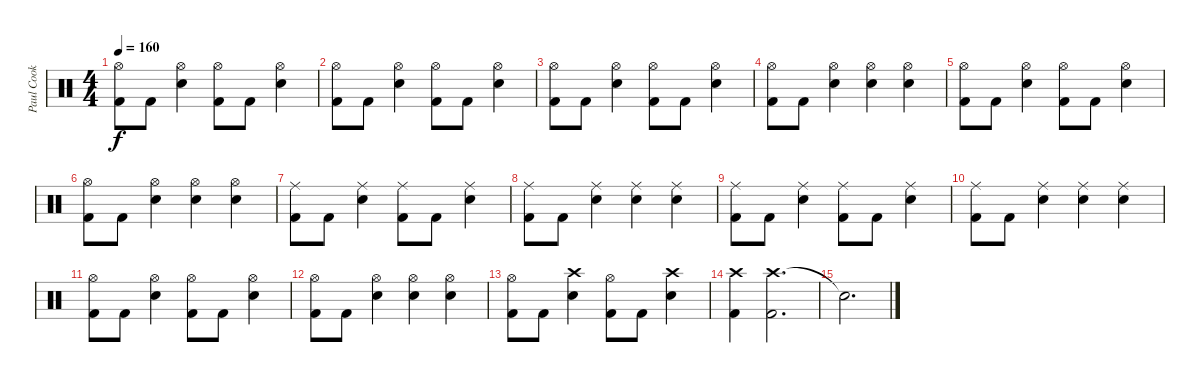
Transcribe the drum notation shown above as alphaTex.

\track ("Paul Cook" "Paul Cook") {instrument percussion}
\staff {score}
\articulation defaults
\ts (4 4)
\tempo 160
\clef neutral
\ks c
("Hi-Hat (open)" "Kick (hit) 2").8{dy f} "Kick (hit) 2".8 ("Hi-Hat (open)" "Electric Snare (hit)").4 ("Hi-Hat (open)" "Kick (hit) 2").8 "Kick (hit) 2".8 ("Hi-Hat (open)" "Electric Snare (hit)").4 |
("Hi-Hat (open)" "Kick (hit) 2").8 "Kick (hit) 2".8 ("Hi-Hat (open)" "Electric Snare (hit)").4 ("Hi-Hat (open)" "Kick (hit) 2").8 "Kick (hit) 2".8 ("Hi-Hat (open)" "Electric Snare (hit)").4 |
("Hi-Hat (open)" "Kick (hit) 2").8 "Kick (hit) 2".8 ("Hi-Hat (open)" "Electric Snare (hit)").4 ("Hi-Hat (open)" "Kick (hit) 2").8 "Kick (hit) 2".8 ("Hi-Hat (open)" "Electric Snare (hit)").4 |
("Hi-Hat (open)" "Kick (hit) 2").8 "Kick (hit) 2".8 ("Hi-Hat (open)" "Electric Snare (hit)").4 ("Hi-Hat (open)" "Electric Snare (hit)").4 ("Hi-Hat (open)" "Electric Snare (hit)").4 |
("Hi-Hat (open)" "Kick (hit) 2").8 "Kick (hit) 2".8 ("Hi-Hat (open)" "Electric Snare (hit)").4 ("Hi-Hat (open)" "Kick (hit) 2").8 "Kick (hit) 2".8 ("Hi-Hat (open)" "Electric Snare (hit)").4 |
("Hi-Hat (open)" "Kick (hit) 2").8 "Kick (hit) 2".8 ("Hi-Hat (open)" "Electric Snare (hit)").4 ("Hi-Hat (open)" "Electric Snare (hit)").4 ("Hi-Hat (open)" "Electric Snare (hit)").4 |
("Ride (middle)" "Kick (hit) 2").8 "Kick (hit) 2".8 ("Ride (middle)" "Electric Snare (hit)").4 ("Ride (middle)" "Kick (hit) 2").8 "Kick (hit) 2".8 ("Ride (middle)" "Electric Snare (hit)").4 |
("Ride (middle)" "Kick (hit) 2").8 "Kick (hit) 2".8 ("Ride (middle)" "Electric Snare (hit)").4 ("Ride (middle)" "Electric Snare (hit)").4 ("Ride (middle)" "Electric Snare (hit)").4 |
("Ride (middle)" "Kick (hit) 2").8 "Kick (hit) 2".8 ("Ride (middle)" "Electric Snare (hit)").4 ("Ride (middle)" "Kick (hit) 2").8 "Kick (hit) 2".8 ("Ride (middle)" "Electric Snare (hit)").4 |
("Ride (middle)" "Kick (hit) 2").8 "Kick (hit) 2".8 ("Ride (middle)" "Electric Snare (hit)").4 ("Ride (middle)" "Electric Snare (hit)").4 ("Ride (middle)" "Electric Snare (hit)").4 |
("Hi-Hat (open)" "Kick (hit) 2").8 "Kick (hit) 2".8 ("Hi-Hat (open)" "Electric Snare (hit)").4 ("Hi-Hat (open)" "Kick (hit) 2").8 "Kick (hit) 2".8 ("Hi-Hat (open)" "Electric Snare (hit)").4 |
("Hi-Hat (open)" "Kick (hit) 2").8 "Kick (hit) 2".8 ("Hi-Hat (open)" "Electric Snare (hit)").4 ("Hi-Hat (open)" "Electric Snare (hit)").4 ("Hi-Hat (open)" "Electric Snare (hit)").4 |
("Hi-Hat (open)" "Kick (hit) 2").8 "Kick (hit) 2".8 ("Crash high (hit)" "Electric Snare (hit)").4 ("Hi-Hat (open)" "Kick (hit) 2").8 "Kick (hit) 2".8 ("Crash high (hit)" "Electric Snare (hit)").4 |
("Crash high (hit)" "Kick (hit) 2").4 ("Crash high (hit)" "Kick (hit) 2").2{d} |
"Snare (hit)"{t}.2{d}
